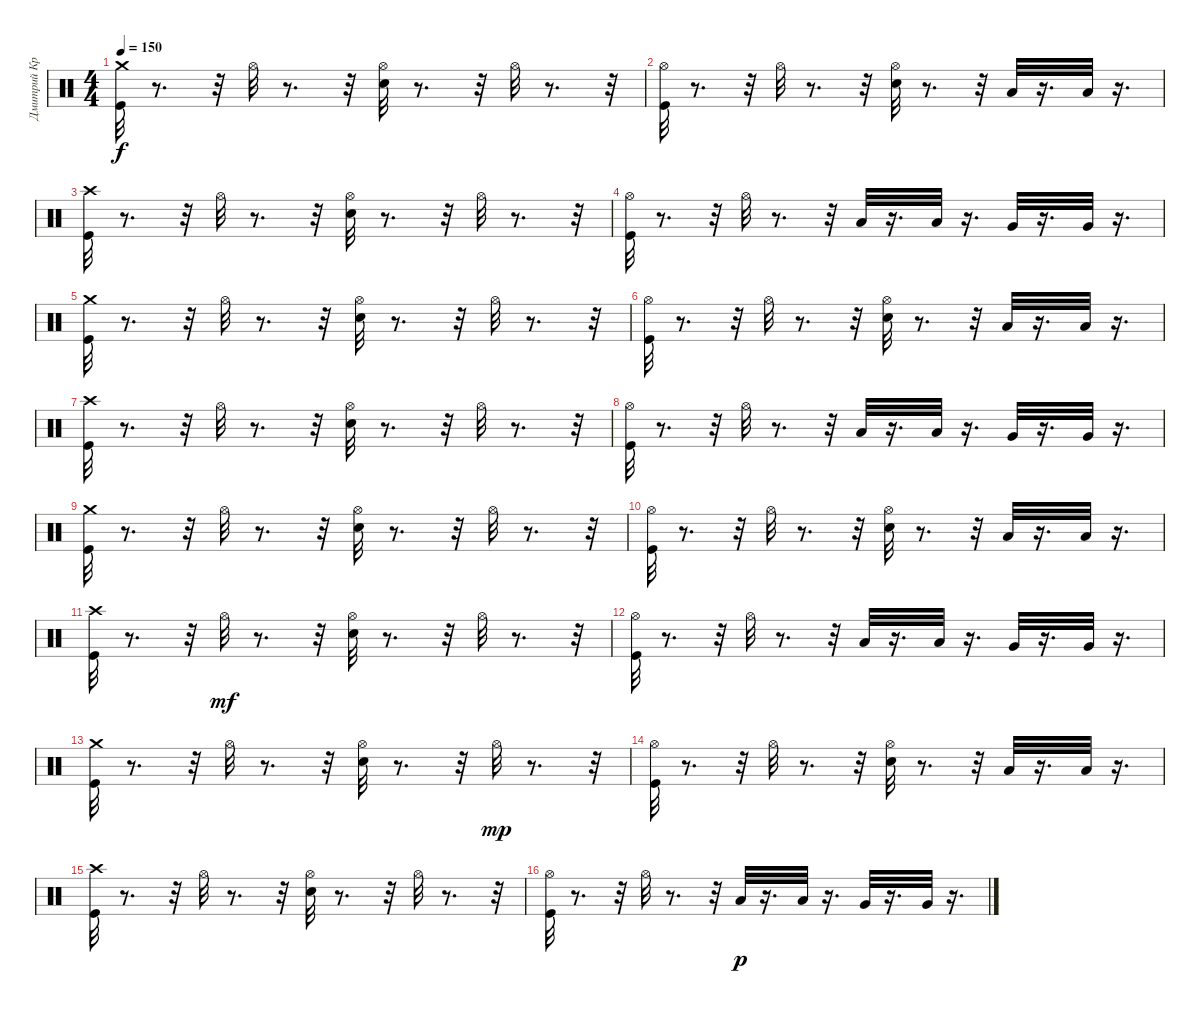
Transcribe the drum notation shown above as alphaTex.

\track ("Дмитрий Кривенков" "Дмитрий Кр") {instrument percussion}
\staff {score}
\articulation defaults
\ts (4 4)
\tempo 150
\clef neutral
\ks c
("Crash medium (hit)" "Kick (hit)").32{dy f} r.8{d} r.32 "Hi-Hat (open)".32 r.8{d} r.32 ("Hi-Hat (open)" "Electric Snare (hit)").32 r.8{d} r.32 "Hi-Hat (open)".32 r.8{d} r.32 |
("Hi-Hat (open)" "Kick (hit)").32 r.8{d} r.32 "Hi-Hat (open)".32 r.8{d} r.32 ("Hi-Hat (open)" "Electric Snare (hit)").32 r.8{d} r.32 "Low Tom (hit)".32 r.16{d} "Low Tom (hit)".32 r.16{d} |
("Kick (hit)" "Crash high (hit)").32 r.8{d} r.32 "Hi-Hat (open)".32 r.8{d} r.32 ("Hi-Hat (open)" "Electric Snare (hit)").32 r.8{d} r.32 "Hi-Hat (open)".32 r.8{d} r.32 |
("Hi-Hat (open)" "Kick (hit)").32 r.8{d} r.32 "Hi-Hat (open)".32 r.8{d} r.32 "Low Tom (hit)".32 r.16{d} "Low Tom (hit)".32 r.16{d} "Very Low Tom (hit)".32 r.16{d} "Very Low Tom (hit)".32 r.16{d} |
("Crash medium (hit)" "Kick (hit)").32 r.8{d} r.32 "Hi-Hat (open)".32 r.8{d} r.32 ("Hi-Hat (open)" "Electric Snare (hit)").32 r.8{d} r.32 "Hi-Hat (open)".32 r.8{d} r.32 |
("Hi-Hat (open)" "Kick (hit)").32 r.8{d} r.32 "Hi-Hat (open)".32 r.8{d} r.32 ("Hi-Hat (open)" "Electric Snare (hit)").32 r.8{d} r.32 "Low Tom (hit)".32 r.16{d} "Low Tom (hit)".32 r.16{d} |
("Kick (hit)" "Crash high (hit)").32 r.8{d} r.32 "Hi-Hat (open)".32 r.8{d} r.32 ("Hi-Hat (open)" "Electric Snare (hit)").32 r.8{d} r.32 "Hi-Hat (open)".32 r.8{d} r.32 |
("Hi-Hat (open)" "Kick (hit)").32 r.8{d} r.32 "Hi-Hat (open)".32 r.8{d} r.32 "Low Tom (hit)".32 r.16{d} "Low Tom (hit)".32 r.16{d} "Very Low Tom (hit)".32 r.16{d} "Very Low Tom (hit)".32 r.16{d} |
("Crash medium (hit)" "Kick (hit)").32 r.8{d} r.32 "Hi-Hat (open)".32 r.8{d} r.32 ("Hi-Hat (open)" "Electric Snare (hit)").32 r.8{d} r.32 "Hi-Hat (open)".32 r.8{d} r.32 |
("Hi-Hat (open)" "Kick (hit)").32 r.8{d} r.32 "Hi-Hat (open)".32 r.8{d} r.32 ("Hi-Hat (open)" "Electric Snare (hit)").32 r.8{d} r.32 "Low Tom (hit)".32 r.16{d} "Low Tom (hit)".32 r.16{d} |
("Kick (hit)" "Crash high (hit)").32 r.8{d} r.32 "Hi-Hat (open)".32{dy mf} r.8{d} r.32 ("Hi-Hat (open)" "Electric Snare (hit)").32 r.8{d} r.32 "Hi-Hat (open)".32 r.8{d} r.32 |
("Hi-Hat (open)" "Kick (hit)").32 r.8{d} r.32 "Hi-Hat (open)".32 r.8{d} r.32 "Low Tom (hit)".32 r.16{d} "Low Tom (hit)".32 r.16{d} "Very Low Tom (hit)".32 r.16{d} "Very Low Tom (hit)".32 r.16{d} |
("Crash medium (hit)" "Kick (hit)").32 r.8{d} r.32 "Hi-Hat (open)".32 r.8{d} r.32 ("Hi-Hat (open)" "Electric Snare (hit)").32 r.8{d} r.32 "Hi-Hat (open)".32{dy mp} r.8{d} r.32 |
("Hi-Hat (open)" "Kick (hit)").32 r.8{d} r.32 "Hi-Hat (open)".32 r.8{d} r.32 ("Hi-Hat (open)" "Electric Snare (hit)").32 r.8{d} r.32 "Low Tom (hit)".32 r.16{d} "Low Tom (hit)".32 r.16{d} |
("Kick (hit)" "Crash high (hit)").32 r.8{d} r.32 "Hi-Hat (open)".32 r.8{d} r.32 ("Hi-Hat (open)" "Electric Snare (hit)").32 r.8{d} r.32 "Hi-Hat (open)".32 r.8{d} r.32 |
("Hi-Hat (open)" "Kick (hit)").32 r.8{d} r.32 "Hi-Hat (open)".32 r.8{d} r.32 "Low Tom (hit)".32{dy p} r.16{d} "Low Tom (hit)".32 r.16{d} "Very Low Tom (hit)".32 r.16{d} "Very Low Tom (hit)".32 r.16{d}
